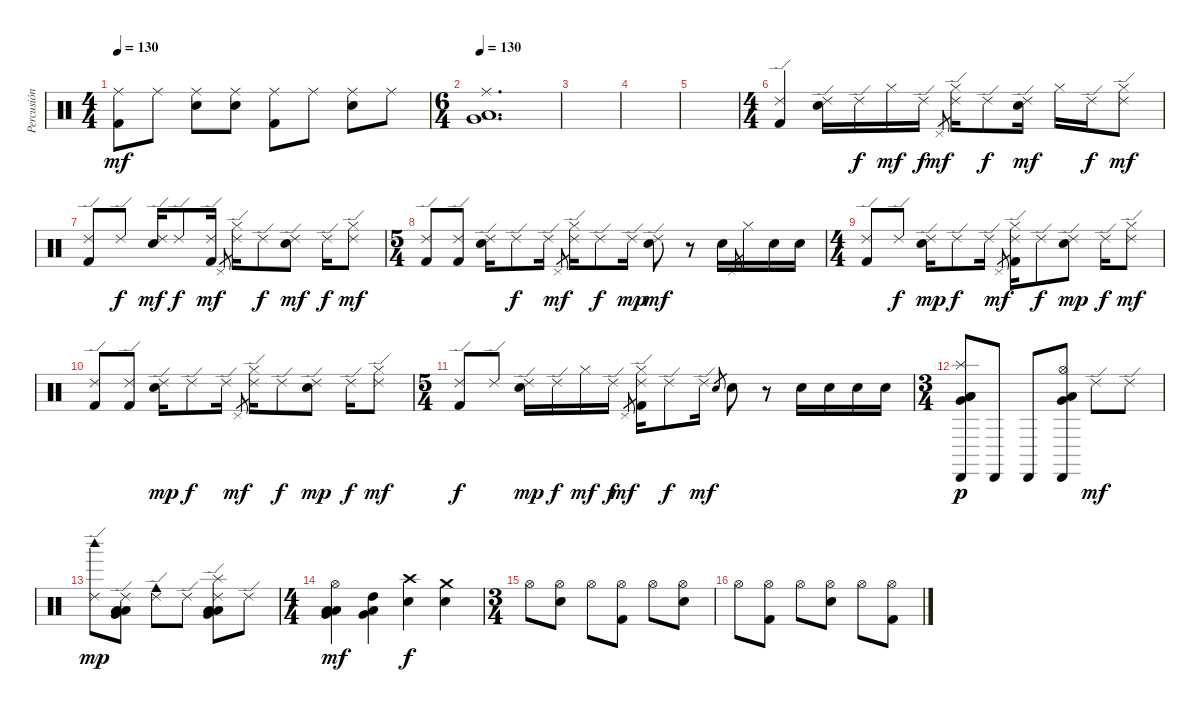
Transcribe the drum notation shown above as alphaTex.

\track ("Percusión" "Percusión") {instrument percussion}
\staff {score}
\articulation defaults
\ts (4 4)
\tempo 130
\clef neutral
\ks c
("Ride (middle)" "Kick (hit) 2").8{dy mf} "Ride (middle)".8 ("Ride (middle)" "Electric Snare (hit)").8 ("Ride (middle)" "Electric Snare (hit)").8 ("Ride (middle)" "Kick (hit) 2").8 "Ride (middle)".8 ("Ride (middle)" "Electric Snare (hit)").8 "Ride (middle)".8 |
\ts (6 4)
\tempo 130
("Ride (middle)" "Low Floor Tom (hit)" "Very Low Tom (hit)").1{d} |
|
|
|
\ts (4 4)
("Ride (edge) 2" "Kick (hit) 2").4 ("Ride (edge) 2" "Electric Snare (hit)").16 "Ride (edge) 2".16{dy f} "Hi-Hat (closed)".16{dy mf} "Ride (edge) 2".16{dy f} "Pedal Hi-Hat (hit)".8{gr dy mf} ("Ride (edge) 2" "Hi-Hat (closed)").16 "Ride (edge) 2".8{dy f} ("Ride (edge) 2" "Electric Snare (hit)").16{dy mf} "Hi-Hat (closed)".16 "Ride (edge) 2".16{dy f} ("Ride (edge) 2" "Hi-Hat (closed)").8{dy mf} |
("Ride (edge) 2" "Kick (hit) 2").8 "Ride (edge) 2".8{dy f} ("Ride (edge) 2" "Electric Snare (hit)").16{dy mf} "Ride (edge) 2".8{dy f} ("Ride (edge) 2" "Kick (hit) 2").16{dy mf} "Pedal Hi-Hat (hit)".8{gr} ("Ride (edge) 2" "Hi-Hat (closed)").16 "Ride (edge) 2".8{dy f} ("Ride (edge) 2" "Electric Snare (hit)").8{dy mf} "Ride (edge) 2".16{dy f} ("Ride (edge) 2" "Hi-Hat (closed)").8{dy mf} |
\ts (5 4)
("Ride (edge) 2" "Kick (hit) 2").8 ("Ride (edge) 2" "Kick (hit) 2").8 ("Ride (edge) 2" "Electric Snare (hit)").16 "Ride (edge) 2".8{dy f} "Ride (edge) 2".16 "Pedal Hi-Hat (hit)".8{gr dy mf} ("Ride (edge) 2" "Hi-Hat (closed)").16 "Ride (edge) 2".8{dy f} "Ride (edge) 2".16{dy mp} ("Ride (edge) 2" "Electric Snare (hit)").8{dy mf} r.8 "Electric Snare (hit)".16 "Pedal Hi-Hat (hit)".8{gr} "Hi-Hat (closed)".16 "Electric Snare (hit)".16 "Electric Snare (hit)".16 |
\ts (4 4)
("Ride (edge) 2" "Kick (hit) 2").8 "Ride (edge) 2".8{dy f} ("Ride (edge) 2" "Electric Snare (hit)").16{dy mp} "Ride (edge) 2".8{dy f} "Ride (edge) 2".16 "Pedal Hi-Hat (hit)".8{gr dy mf} ("Ride (edge) 2" "Hi-Hat (closed)" "Kick (hit) 2").16 "Ride (edge) 2".8{dy f} ("Ride (edge) 2" "Electric Snare (hit)").8{dy mp} "Ride (edge) 2".16{dy f} ("Ride (edge) 2" "Hi-Hat (closed)").8{dy mf} |
("Ride (edge) 2" "Kick (hit) 2").8 ("Ride (edge) 2" "Kick (hit) 2").8 ("Ride (edge) 2" "Electric Snare (hit)").16{dy mp} "Ride (edge) 2".8{dy f} "Ride (edge) 2".16 "Pedal Hi-Hat (hit)".8{gr dy mf} ("Ride (edge) 2" "Hi-Hat (closed)").16 "Ride (edge) 2".8{dy f} ("Ride (edge) 2" "Electric Snare (hit)").8{dy mp} "Ride (edge) 2".16{dy f} ("Ride (edge) 2" "Hi-Hat (closed)").8{dy mf} |
\ts (5 4)
("Ride (edge) 2" "Kick (hit) 2").8{dy f} "Ride (edge) 2".8 ("Ride (edge) 2" "Electric Snare (hit)").16{dy mp} "Ride (edge) 2".16{dy f} "Hi-Hat (closed)".16{dy mf} "Ride (edge) 2".16{dy f} "Pedal Hi-Hat (hit)".8{gr dy mf} ("Ride (edge) 2" "Hi-Hat (closed)" "Kick (hit) 2").16 "Ride (edge) 2".8{dy f} "Ride (edge) 2".16{dy mf} "Electric Snare (hit)".8{gr} "Electric Snare (hit)".8 r.8 "Electric Snare (hit)".16 "Electric Snare (hit)".16 "Electric Snare (hit)".16 "Electric Snare (hit)".16 |
\ts (3 4)
("Splash (hit)" "Low Floor Tom (hit)" "Very Low Tom (hit)" "Cabasa (hit)" "Low Tom (hit)").8{dy p} "Cabasa (hit)".8 "Cabasa (hit)".8 ("Low Floor Tom (hit)" "Very Low Tom (hit)" "Cabasa (hit)" "Hi-Hat (open)").8 "Ride (edge) 2".8{dy mf} "Ride (edge) 2".8 |
("Woodblock high (hit)" "Ride (edge) 2").8{dy mp} ("Low Floor Tom (hit)" "Very Low Tom (hit)" "Ride (edge) 2" "Low Tom (hit)").8 ("Cowbell medium (hit)" "Ride (edge) 2").8 "Ride (edge) 2".8 ("Splash (hit)" "Low Floor Tom (hit)" "Very Low Tom (hit)" "Ride (edge) 2" "Low Tom (hit)").8 "Ride (edge) 2".8 |
\ts (4 4)
("Hi-Hat (open)" "Low Tom (hit)" "Very Low Tom (hit)" "Low Floor Tom (hit)").4{dy mf} ("High Tom (hit)" "Very Low Tom (hit)" "Low Tom (hit)").4 ("Crash high (hit)" "Electric Snare (hit)").4{dy f} ("Crash medium (hit)" "Electric Snare (hit)").4 |
\ts (3 4)
"Hi-Hat (open)".8 ("Hi-Hat (open)" "Electric Snare (hit)").8 "Hi-Hat (open)".8 ("Hi-Hat (open)" "Kick (hit) 2").8 "Hi-Hat (open)".8 ("Hi-Hat (open)" "Electric Snare (hit)").8 |
"Hi-Hat (open)".8 ("Hi-Hat (open)" "Kick (hit) 2").8 "Hi-Hat (open)".8 ("Hi-Hat (open)" "Electric Snare (hit)").8 "Hi-Hat (open)".8 ("Hi-Hat (open)" "Kick (hit) 2").8
